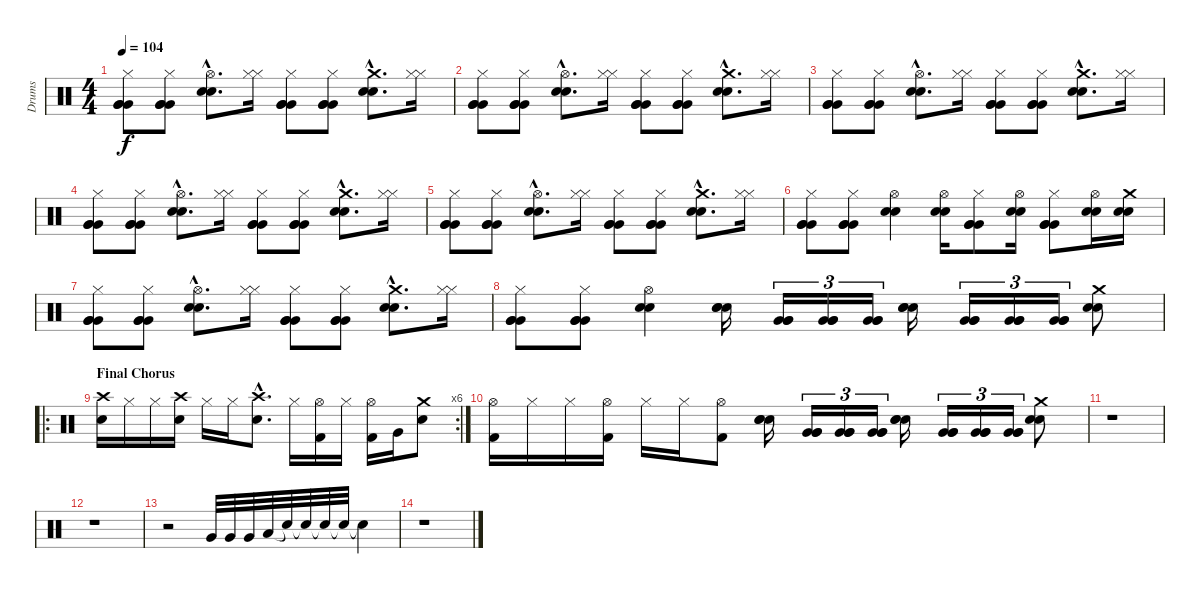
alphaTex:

\track ("Drums" "Drums") {instrument percussion}
\staff {score}
\articulation defaults
\ts (4 4)
\tempo 104
\clef neutral
\ks c
("Very Low Tom (hit)" "Very Low Tom (hit)" "Hi-Hat (closed)" "Very Low Tom (hit)").8{dy f} ("Very Low Tom (hit)" "Very Low Tom (hit)" "Hi-Hat (closed)" "Very Low Tom (hit)").8 ("Hi-Hat (open)"{hac} "Snare (hit) 2"{hac} "Snare (hit) 2"{hac}).8{d} ("Hi-Hat (closed)" "Hi-Hat (closed)").16 ("Very Low Tom (hit)" "Very Low Tom (hit)" "Hi-Hat (closed)" "Very Low Tom (hit)").8 ("Very Low Tom (hit)" "Very Low Tom (hit)" "Hi-Hat (closed)" "Very Low Tom (hit)").8 ("Crash medium (hit)"{hac} "Snare (hit) 2"{hac} "Snare (hit) 2"{hac}).8{d} ("Hi-Hat (closed)" "Hi-Hat (closed)").16 |
("Very Low Tom (hit)" "Very Low Tom (hit)" "Hi-Hat (closed)" "Very Low Tom (hit)").8 ("Very Low Tom (hit)" "Very Low Tom (hit)" "Hi-Hat (closed)" "Very Low Tom (hit)").8 ("Hi-Hat (open)"{hac} "Snare (hit) 2"{hac} "Snare (hit) 2"{hac}).8{d} ("Hi-Hat (closed)" "Hi-Hat (closed)").16 ("Very Low Tom (hit)" "Very Low Tom (hit)" "Hi-Hat (closed)" "Very Low Tom (hit)").8 ("Very Low Tom (hit)" "Very Low Tom (hit)" "Hi-Hat (closed)" "Very Low Tom (hit)").8 ("Crash medium (hit)"{hac} "Snare (hit) 2"{hac} "Snare (hit) 2"{hac}).8{d} ("Hi-Hat (closed)" "Hi-Hat (closed)").16 |
("Very Low Tom (hit)" "Very Low Tom (hit)" "Hi-Hat (closed)" "Very Low Tom (hit)").8 ("Very Low Tom (hit)" "Very Low Tom (hit)" "Hi-Hat (closed)" "Very Low Tom (hit)").8 ("Hi-Hat (open)"{hac} "Snare (hit) 2"{hac} "Snare (hit) 2"{hac}).8{d} ("Hi-Hat (closed)" "Hi-Hat (closed)").16 ("Very Low Tom (hit)" "Very Low Tom (hit)" "Hi-Hat (closed)" "Very Low Tom (hit)").8 ("Very Low Tom (hit)" "Very Low Tom (hit)" "Hi-Hat (closed)" "Very Low Tom (hit)").8 ("Crash medium (hit)"{hac} "Snare (hit) 2"{hac} "Snare (hit) 2"{hac}).8{d} ("Hi-Hat (closed)" "Hi-Hat (closed)").16 |
("Very Low Tom (hit)" "Very Low Tom (hit)" "Hi-Hat (closed)" "Very Low Tom (hit)").8 ("Very Low Tom (hit)" "Very Low Tom (hit)" "Hi-Hat (closed)" "Very Low Tom (hit)").8 ("Hi-Hat (open)"{hac} "Snare (hit) 2"{hac} "Snare (hit) 2"{hac}).8{d} ("Hi-Hat (closed)" "Hi-Hat (closed)").16 ("Very Low Tom (hit)" "Very Low Tom (hit)" "Hi-Hat (closed)" "Very Low Tom (hit)").8 ("Very Low Tom (hit)" "Very Low Tom (hit)" "Hi-Hat (closed)" "Very Low Tom (hit)").8 ("Crash medium (hit)"{hac} "Snare (hit) 2"{hac} "Snare (hit) 2"{hac}).8{d} ("Hi-Hat (closed)" "Hi-Hat (closed)").16 |
("Very Low Tom (hit)" "Very Low Tom (hit)" "Hi-Hat (closed)" "Very Low Tom (hit)").8 ("Very Low Tom (hit)" "Very Low Tom (hit)" "Hi-Hat (closed)" "Very Low Tom (hit)").8 ("Hi-Hat (open)"{hac} "Snare (hit) 2"{hac} "Snare (hit) 2"{hac}).8{d} ("Hi-Hat (closed)" "Hi-Hat (closed)").16 ("Very Low Tom (hit)" "Very Low Tom (hit)" "Hi-Hat (closed)" "Very Low Tom (hit)").8 ("Very Low Tom (hit)" "Very Low Tom (hit)" "Hi-Hat (closed)" "Very Low Tom (hit)").8 ("Crash medium (hit)"{hac} "Snare (hit) 2"{hac} "Snare (hit) 2"{hac}).8{d} ("Hi-Hat (closed)" "Hi-Hat (closed)").16 |
("Very Low Tom (hit)" "Very Low Tom (hit)" "Hi-Hat (closed)" "Very Low Tom (hit)").8 ("Very Low Tom (hit)" "Very Low Tom (hit)" "Hi-Hat (closed)" "Very Low Tom (hit)").8 ("Hi-Hat (open)" "Snare (hit) 2" "Snare (hit) 2").4 ("Hi-Hat (open)" "Snare (hit) 2" "Snare (hit) 2").16 ("Very Low Tom (hit)" "Very Low Tom (hit)" "Hi-Hat (closed)" "Very Low Tom (hit)").8 ("Hi-Hat (open)" "Snare (hit) 2" "Snare (hit) 2").16 ("Very Low Tom (hit)" "Very Low Tom (hit)" "Hi-Hat (closed)" "Very Low Tom (hit)").8 ("Hi-Hat (open)" "Snare (hit) 2" "Snare (hit) 2").16 ("Crash medium (hit)" "Snare (hit) 2" "Snare (hit) 2").16 |
("Very Low Tom (hit)" "Very Low Tom (hit)" "Hi-Hat (closed)" "Very Low Tom (hit)").8 ("Very Low Tom (hit)" "Very Low Tom (hit)" "Hi-Hat (closed)" "Very Low Tom (hit)").8 ("Hi-Hat (open)"{hac} "Snare (hit) 2"{hac} "Snare (hit) 2"{hac}).8{d} ("Hi-Hat (closed)" "Hi-Hat (closed)").16 ("Very Low Tom (hit)" "Very Low Tom (hit)" "Hi-Hat (closed)" "Very Low Tom (hit)").8 ("Very Low Tom (hit)" "Very Low Tom (hit)" "Hi-Hat (closed)" "Very Low Tom (hit)").8 ("Crash medium (hit)"{hac} "Snare (hit) 2"{hac} "Snare (hit) 2"{hac}).8{d} ("Hi-Hat (closed)" "Hi-Hat (closed)").16 |
("Very Low Tom (hit)" "Very Low Tom (hit)" "Hi-Hat (closed)" "Very Low Tom (hit)").8 ("Very Low Tom (hit)" "Very Low Tom (hit)" "Hi-Hat (closed)" "Very Low Tom (hit)").8 ("Hi-Hat (open)" "Snare (hit) 2" "Snare (hit) 2").4 ("Snare (hit) 2" "Snare (hit) 2" "Snare (hit) 2").16 ("Very Low Tom (hit)" "Very Low Tom (hit)" "Very Low Tom (hit)").16{tu (3 2)} ("Very Low Tom (hit)" "Very Low Tom (hit)" "Very Low Tom (hit)").16{tu (3 2)} ("Very Low Tom (hit)" "Very Low Tom (hit)" "Very Low Tom (hit)").16{tu (3 2)} ("Snare (hit) 2" "Snare (hit) 2" "Snare (hit) 2").16 ("Very Low Tom (hit)" "Very Low Tom (hit)" "Very Low Tom (hit)").16{tu (3 2)} ("Very Low Tom (hit)" "Very Low Tom (hit)" "Very Low Tom (hit)").16{tu (3 2)} ("Very Low Tom (hit)" "Very Low Tom (hit)" "Very Low Tom (hit)").16{tu (3 2)} ("Crash medium (hit)" "Snare (hit) 2" "Snare (hit) 2").8 |
\ro
\rc 6
\section ("" "Final Chorus")
("Crash high (hit)" "Snare (hit) 2").16 "Hi-Hat (closed)".16 "Hi-Hat (closed)".16 ("Crash high (hit)" "Snare (hit) 2").16 "Hi-Hat (closed)".16 "Hi-Hat (closed)".16 ("Crash high (hit)"{hac} "Snare (hit) 2"{hac}).8{d} "Hi-Hat (closed)".16 ("Hi-Hat (open)" "Kick (hit) 2").16 "Hi-Hat (closed)".16 ("Hi-Hat (open)" "Kick (hit) 2").16 "Very Low Tom (hit)".16 ("Crash medium (hit)" "Snare (hit) 2").8 |
("Hi-Hat (open)" "Kick (hit) 2").16 "Hi-Hat (closed)".16 "Hi-Hat (closed)".16 ("Hi-Hat (open)" "Kick (hit) 2").16 "Hi-Hat (closed)".16 "Hi-Hat (closed)".16 ("Hi-Hat (open)" "Kick (hit) 2").8 ("Snare (hit) 2" "Snare (hit) 2" "Snare (hit) 2").16 ("Very Low Tom (hit)" "Very Low Tom (hit)" "Very Low Tom (hit)").16{tu (3 2)} ("Very Low Tom (hit)" "Very Low Tom (hit)" "Very Low Tom (hit)").16{tu (3 2)} ("Very Low Tom (hit)" "Very Low Tom (hit)" "Very Low Tom (hit)").16{tu (3 2)} ("Snare (hit) 2" "Snare (hit) 2" "Snare (hit) 2").16 ("Very Low Tom (hit)" "Very Low Tom (hit)" "Very Low Tom (hit)").16{tu (3 2)} ("Very Low Tom (hit)" "Very Low Tom (hit)" "Very Low Tom (hit)").16{tu (3 2)} ("Very Low Tom (hit)" "Very Low Tom (hit)" "Very Low Tom (hit)").16{tu (3 2)} ("Crash medium (hit)" "Snare (hit) 2" "Snare (hit) 2").8 |
r.1 |
r.1 |
r.2 "Very Low Tom (hit)".32 "Very Low Tom (hit)".32 "Very Low Tom (hit)".32 "Low Floor Tom (hit)".32 "Snare (hit)"{t}.32 "Snare (hit)"{t}.32 "Snare (hit)"{t}.32 "Snare (hit)"{t}.32 "Snare (hit)"{t}.4 |
r.1
